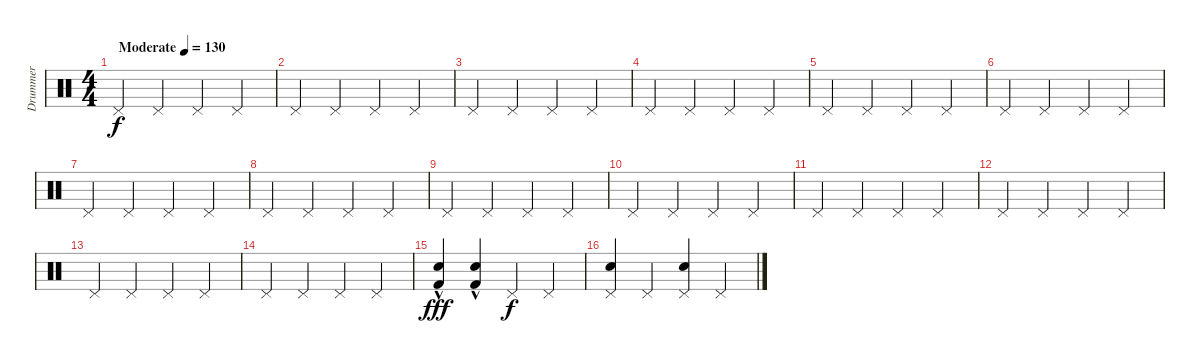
\track ("Drummer" "Drummer") {instrument percussion}
\staff {score}
\articulation defaults
\ts (4 4)
\tempo (130 "Moderate")
\clef neutral
\ks c "Pedal Hi-Hat (hit)".4{dy f} "Pedal Hi-Hat (hit)".4 "Pedal Hi-Hat (hit)".4 "Pedal Hi-Hat (hit)".4
|
"Pedal Hi-Hat (hit)".4 "Pedal Hi-Hat (hit)".4 "Pedal Hi-Hat (hit)".4 "Pedal Hi-Hat (hit)".4 |
"Pedal Hi-Hat (hit)".4 "Pedal Hi-Hat (hit)".4 "Pedal Hi-Hat (hit)".4 "Pedal Hi-Hat (hit)".4 |
"Pedal Hi-Hat (hit)".4 "Pedal Hi-Hat (hit)".4 "Pedal Hi-Hat (hit)".4 "Pedal Hi-Hat (hit)".4 |
"Pedal Hi-Hat (hit)".4 "Pedal Hi-Hat (hit)".4 "Pedal Hi-Hat (hit)".4 "Pedal Hi-Hat (hit)".4 |
"Pedal Hi-Hat (hit)".4 "Pedal Hi-Hat (hit)".4 "Pedal Hi-Hat (hit)".4 "Pedal Hi-Hat (hit)".4 |
"Pedal Hi-Hat (hit)".4 "Pedal Hi-Hat (hit)".4 "Pedal Hi-Hat (hit)".4 "Pedal Hi-Hat (hit)".4 |
"Pedal Hi-Hat (hit)".4 "Pedal Hi-Hat (hit)".4 "Pedal Hi-Hat (hit)".4 "Pedal Hi-Hat (hit)".4 |
"Pedal Hi-Hat (hit)".4 "Pedal Hi-Hat (hit)".4 "Pedal Hi-Hat (hit)".4 "Pedal Hi-Hat (hit)".4 |
"Pedal Hi-Hat (hit)".4 "Pedal Hi-Hat (hit)".4 "Pedal Hi-Hat (hit)".4 "Pedal Hi-Hat (hit)".4 |
"Pedal Hi-Hat (hit)".4 "Pedal Hi-Hat (hit)".4 "Pedal Hi-Hat (hit)".4 "Pedal Hi-Hat (hit)".4 |
"Pedal Hi-Hat (hit)".4 "Pedal Hi-Hat (hit)".4 "Pedal Hi-Hat (hit)".4 "Pedal Hi-Hat (hit)".4 |
"Pedal Hi-Hat (hit)".4 "Pedal Hi-Hat (hit)".4 "Pedal Hi-Hat (hit)".4 "Pedal Hi-Hat (hit)".4 |
"Pedal Hi-Hat (hit)".4 "Pedal Hi-Hat (hit)".4 "Pedal Hi-Hat (hit)".4 "Pedal Hi-Hat (hit)".4 |
("Kick (hit) 2"{hac} "Snare (hit) 2"{hac}).4{dy fff} ("Kick (hit) 2"{hac} "Snare (hit) 2"{hac}).4 "Pedal Hi-Hat (hit)".4{dy f} "Pedal Hi-Hat (hit)".4 |
("Pedal Hi-Hat (hit)" "Snare (hit) 2").4 "Pedal Hi-Hat (hit)".4 ("Pedal Hi-Hat (hit)" "Snare (hit) 2").4 "Pedal Hi-Hat (hit)".4
